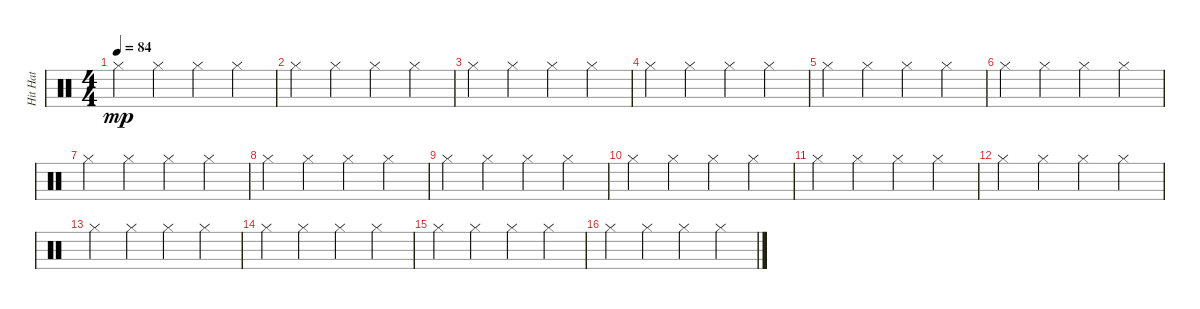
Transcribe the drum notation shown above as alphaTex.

\track ("Hit Hat" "Hit Hat") {instrument percussion}
\staff {score}
\articulation defaults
\ts (4 4)
\tempo 84
\clef neutral
\ks c "Hi-Hat (closed)".4{dy mp} "Hi-Hat (closed)".4 "Hi-Hat (closed)".4 "Hi-Hat (closed)".4
|
"Hi-Hat (closed)".4 "Hi-Hat (closed)".4 "Hi-Hat (closed)".4 "Hi-Hat (closed)".4 |
"Hi-Hat (closed)".4 "Hi-Hat (closed)".4 "Hi-Hat (closed)".4 "Hi-Hat (closed)".4 |
"Hi-Hat (closed)".4 "Hi-Hat (closed)".4 "Hi-Hat (closed)".4 "Hi-Hat (closed)".4 |
"Hi-Hat (closed)".4 "Hi-Hat (closed)".4 "Hi-Hat (closed)".4 "Hi-Hat (closed)".4 |
"Hi-Hat (closed)".4 "Hi-Hat (closed)".4 "Hi-Hat (closed)".4 "Hi-Hat (closed)".4 |
"Hi-Hat (closed)".4 "Hi-Hat (closed)".4 "Hi-Hat (closed)".4 "Hi-Hat (closed)".4 |
"Hi-Hat (closed)".4 "Hi-Hat (closed)".4 "Hi-Hat (closed)".4 "Hi-Hat (closed)".4 |
"Hi-Hat (closed)".4 "Hi-Hat (closed)".4 "Hi-Hat (closed)".4 "Hi-Hat (closed)".4 |
"Hi-Hat (closed)".4 "Hi-Hat (closed)".4 "Hi-Hat (closed)".4 "Hi-Hat (closed)".4 |
"Hi-Hat (closed)".4 "Hi-Hat (closed)".4 "Hi-Hat (closed)".4 "Hi-Hat (closed)".4 |
"Hi-Hat (closed)".4 "Hi-Hat (closed)".4 "Hi-Hat (closed)".4 "Hi-Hat (closed)".4 |
"Hi-Hat (closed)".4 "Hi-Hat (closed)".4 "Hi-Hat (closed)".4 "Hi-Hat (closed)".4 |
"Hi-Hat (closed)".4 "Hi-Hat (closed)".4 "Hi-Hat (closed)".4 "Hi-Hat (closed)".4 |
"Hi-Hat (closed)".4 "Hi-Hat (closed)".4 "Hi-Hat (closed)".4 "Hi-Hat (closed)".4 |
"Hi-Hat (closed)".4 "Hi-Hat (closed)".4 "Hi-Hat (closed)".4 "Hi-Hat (closed)".4
